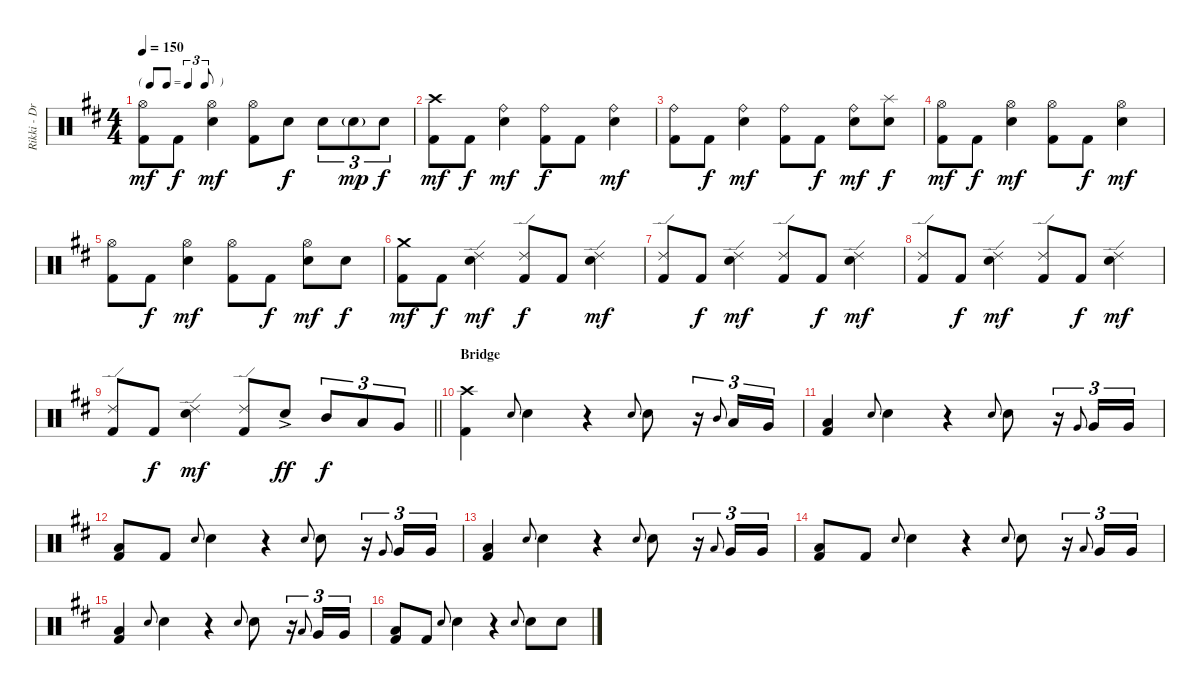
\track ("Rikki - Drums" "Rikki - Dr") {instrument percussion}
\staff {score}
\articulation defaults
\ts (4 4)
\tf triplet8th
\tempo 150
\clef neutral
\ks d
("Hi-Hat (open)" "Kick (hit) 2").8{dy mf} "Kick (hit) 2".8{dy f} ("Hi-Hat (open)" "Snare (hit) 2").4{dy mf} ("Hi-Hat (open)" "Kick (hit) 2").8 "Snare (hit) 2".8{dy f} "Snare (hit) 2".8{tu (3 2)} "Snare (hit) 2"{g}.8{tu (3 2) dy mp} "Snare (hit) 2".8{tu (3 2) dy f} |
("Crash high (hit)" "Kick (hit) 2").8{dy mf} "Kick (hit) 2".8{dy f} ("Ride (bell)" "Snare (hit) 2").4{dy mf} ("Ride (bell)" "Kick (hit) 2").8{dy f} "Kick (hit) 2".8 ("Ride (bell)" "Snare (hit) 2").4{dy mf} |
("Ride (bell)" "Kick (hit) 2").8 "Kick (hit) 2".8{dy f} ("Ride (bell)" "Snare (hit) 2").4{dy mf} ("Ride (bell)" "Kick (hit) 2").8 "Kick (hit) 2".8{dy f} ("Ride (bell)" "Snare (hit) 2").8{dy mf} ("Splash (hit)" "Snare (hit) 2").8{dy f} |
("Hi-Hat (open)" "Kick (hit) 2").8{dy mf} "Kick (hit) 2".8{dy f} ("Hi-Hat (open)" "Snare (hit) 2").4{dy mf} ("Hi-Hat (open)" "Kick (hit) 2").8 "Kick (hit) 2".8{dy f} ("Hi-Hat (open)" "Snare (hit) 2").4{dy mf} |
("Hi-Hat (open)" "Kick (hit) 2").8 "Kick (hit) 2".8{dy f} ("Hi-Hat (open)" "Snare (hit) 2").4{dy mf} ("Hi-Hat (open)" "Kick (hit) 2").8 "Kick (hit) 2".8{dy f} ("Hi-Hat (open)" "Snare (hit) 2").8{dy mf} "Snare (hit) 2".8{dy f} |
("Crash medium (hit)" "Kick (hit) 2").8{dy mf} "Kick (hit) 2".8{dy f} ("Ride (edge) 2" "Snare (hit) 2").4{dy mf} ("Ride (edge) 2" "Kick (hit) 2").8{dy f} "Kick (hit) 2".8 ("Ride (edge) 2" "Snare (hit) 2").4{dy mf} |
("Ride (edge) 2" "Kick (hit) 2").8 "Kick (hit) 2".8{dy f} ("Ride (edge) 2" "Snare (hit) 2").4{dy mf} ("Ride (edge) 2" "Kick (hit) 2").8 "Kick (hit) 2".8{dy f} ("Ride (edge) 2" "Snare (hit) 2").4{dy mf} |
("Ride (edge) 2" "Kick (hit) 2").8 "Kick (hit) 2".8{dy f} ("Ride (edge) 2" "Snare (hit) 2").4{dy mf} ("Ride (edge) 2" "Kick (hit) 2").8 "Kick (hit) 2".8{dy f} ("Ride (edge) 2" "Snare (hit) 2").4{dy mf} |
\barLineRight lightlight
("Ride (edge) 2" "Kick (hit) 2").8 "Kick (hit) 2".8{dy f} ("Ride (edge) 2" "Snare (hit) 2").4{dy mf} ("Ride (edge) 2" "Kick (hit) 2").8 "Snare (hit) 2"{ac}.8{dy ff} "Mid Tom (hit)".8{tu (3 2) dy f} "Low Tom (hit)".8{tu (3 2)} "Very Low Tom (hit)".8{tu (3 2)} |
\section ("" "Bridge")
("Crash high (hit)" "Kick (hit) 2").4 "Snare (hit) 2".8{gr onbeat} "Snare (hit) 2".4 r.4 "Snare (hit) 2".8{gr onbeat} "Snare (hit) 2".8 r.16{tu (3 2)} "Mid Tom (hit)".8{gr onbeat} "Low Tom (hit)".16{tu (3 2)} "Very Low Tom (hit)".16{tu (3 2)} |
("Low Floor Tom (hit)" "Kick (hit) 2").4 "Snare (hit) 2".8{gr onbeat} "Snare (hit) 2".4 r.4 "Snare (hit) 2".8{gr onbeat} "Snare (hit) 2".8 r.16{tu (3 2)} "Very Low Tom (hit)".8{gr onbeat} "Very Low Tom (hit)".16{tu (3 2)} "Very Low Tom (hit)".16{tu (3 2)} |
("Low Floor Tom (hit)" "Kick (hit) 2").8 "Kick (hit) 2".8 "Snare (hit) 2".8{gr onbeat} "Snare (hit) 2".4 r.4 "Snare (hit) 2".8{gr onbeat} "Snare (hit) 2".8 r.16{tu (3 2)} "Very Low Tom (hit)".8{gr onbeat} "Very Low Tom (hit)".16{tu (3 2)} "Very Low Tom (hit)".16{tu (3 2)} |
("Low Floor Tom (hit)" "Kick (hit) 2").4 "Snare (hit) 2".8{gr onbeat} "Snare (hit) 2".4 r.4 "Snare (hit) 2".8{gr onbeat} "Snare (hit) 2".8 r.16{tu (3 2)} "Low Tom (hit)".8{gr onbeat} "Very Low Tom (hit)".16{tu (3 2)} "Very Low Tom (hit)".16{tu (3 2)} |
("Low Floor Tom (hit)" "Kick (hit) 2").8 "Kick (hit) 2".8 "Snare (hit) 2".8{gr onbeat} "Snare (hit) 2".4 r.4 "Snare (hit) 2".8{gr onbeat} "Snare (hit) 2".8 r.16{tu (3 2)} "Low Tom (hit)".8{gr onbeat} "Very Low Tom (hit)".16{tu (3 2)} "Very Low Tom (hit)".16{tu (3 2)} |
("Low Floor Tom (hit)" "Kick (hit) 2").4 "Snare (hit) 2".8{gr onbeat} "Snare (hit) 2".4 r.4 "Snare (hit) 2".8{gr onbeat} "Snare (hit) 2".8 r.16{tu (3 2)} "Low Tom (hit)".8{gr onbeat} "Very Low Tom (hit)".16{tu (3 2)} "Very Low Tom (hit)".16{tu (3 2)} |
("Low Floor Tom (hit)" "Kick (hit) 2").8 "Kick (hit) 2".8 "Snare (hit) 2".8{gr onbeat} "Snare (hit) 2".4 r.4 "Snare (hit) 2".8{gr onbeat} "Snare (hit) 2".8 "Snare (hit) 2".8
